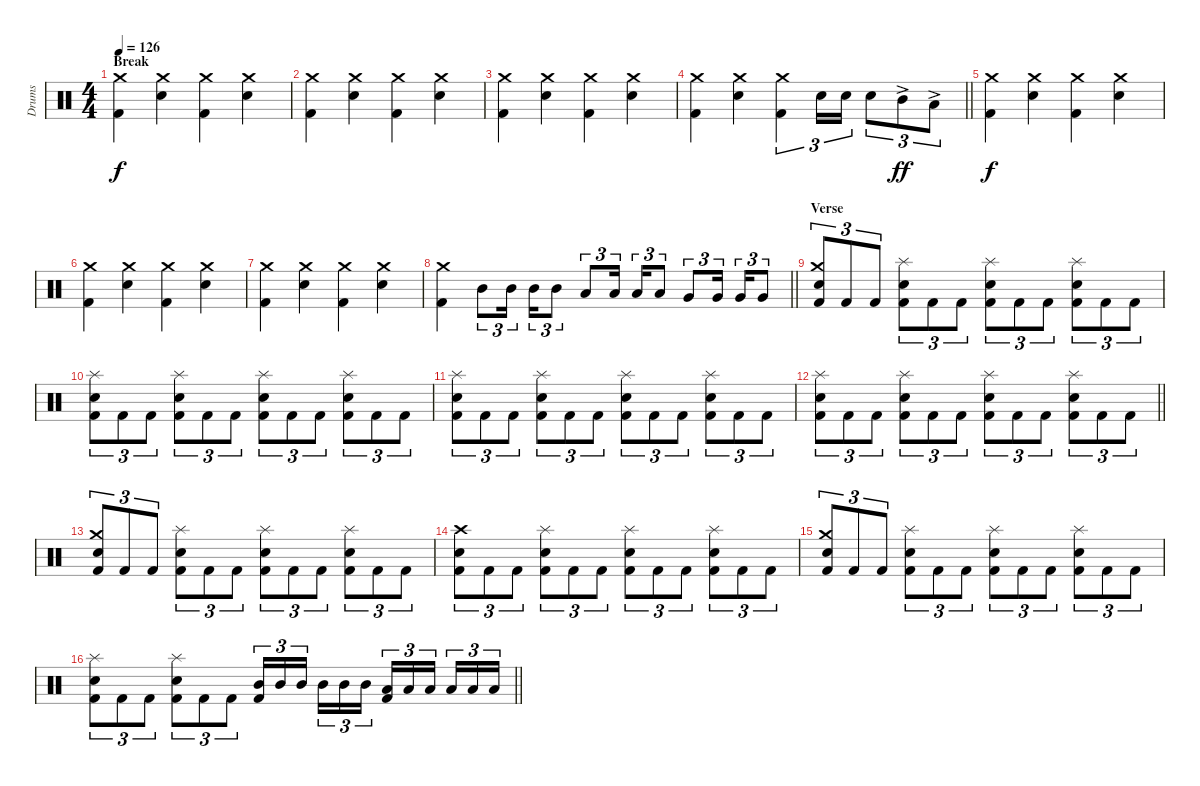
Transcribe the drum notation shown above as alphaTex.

\track ("Drums" "Drums") {instrument percussion}
\staff {score}
\articulation defaults
\ts (4 4)
\section ("" "Break")
\tempo 126
\clef neutral
\ks c
("Kick (hit) 2" "Crash medium (hit)").4{dy f} ("Snare (hit) 2" "Crash medium (hit)").4 ("Kick (hit) 2" "Crash medium (hit)").4 ("Snare (hit) 2" "Crash medium (hit)").4 |
("Kick (hit) 2" "Crash medium (hit)").4 ("Snare (hit) 2" "Crash medium (hit)").4 ("Kick (hit) 2" "Crash medium (hit)").4 ("Snare (hit) 2" "Crash medium (hit)").4 |
("Kick (hit) 2" "Crash medium (hit)").4 ("Snare (hit) 2" "Crash medium (hit)").4 ("Kick (hit) 2" "Crash medium (hit)").4 ("Snare (hit) 2" "Crash medium (hit)").4 |
\barLineRight lightlight
("Kick (hit) 2" "Crash medium (hit)").4 ("Snare (hit) 2" "Crash medium (hit)").4 ("Kick (hit) 2" "Crash medium (hit)").4{tu (3 2)} "Snare (hit) 2".16{tu (3 2)} "Snare (hit) 2".16{tu (3 2)} "Snare (hit) 2".8{tu (3 2)} "Mid Tom (hit)"{ac}.8{tu (3 2) dy ff} "Low Tom (hit)"{ac}.8{tu (3 2)} |
\section ("" "")
("Kick (hit) 2" "Crash medium (hit)").4{dy f} ("Snare (hit) 2" "Crash medium (hit)").4 ("Kick (hit) 2" "Crash medium (hit)").4 ("Snare (hit) 2" "Crash medium (hit)").4 |
("Kick (hit) 2" "Crash medium (hit)").4 ("Snare (hit) 2" "Crash medium (hit)").4 ("Kick (hit) 2" "Crash medium (hit)").4 ("Snare (hit) 2" "Crash medium (hit)").4 |
("Kick (hit) 2" "Crash medium (hit)").4 ("Snare (hit) 2" "Crash medium (hit)").4 ("Kick (hit) 2" "Crash medium (hit)").4 ("Snare (hit) 2" "Crash medium (hit)").4 |
\barLineRight lightlight
("Kick (hit) 2" "Crash medium (hit)").4 "Mid Tom (hit)".8{tu (3 2)} "Mid Tom (hit)".16{tu (3 2) beam splitsecondary} "Mid Tom (hit)".16{tu (3 2)} "Mid Tom (hit)".8{tu (3 2)} "Low Tom (hit)".8{tu (3 2)} "Low Tom (hit)".16{tu (3 2) beam splitsecondary} "Low Tom (hit)".16{tu (3 2)} "Low Tom (hit)".8{tu (3 2)} "Very Low Tom (hit)".8{tu (3 2)} "Very Low Tom (hit)".16{tu (3 2) beam splitsecondary} "Very Low Tom (hit)".16{tu (3 2)} "Very Low Tom (hit)".8{tu (3 2)} |
\section ("" "Verse")
("Kick (hit) 2" "Snare (hit) 2" "Crash medium (hit)").8{tu (3 2)} "Kick (hit) 2".8{tu (3 2)} "Kick (hit) 2".8{tu (3 2)} ("Kick (hit) 2" "Snare (hit) 2" "Splash (hit)").8{tu (3 2)} "Kick (hit) 2".8{tu (3 2)} "Kick (hit) 2".8{tu (3 2)} ("Kick (hit) 2" "Snare (hit) 2" "Splash (hit)").8{tu (3 2)} "Kick (hit) 2".8{tu (3 2)} "Kick (hit) 2".8{tu (3 2)} ("Kick (hit) 2" "Snare (hit) 2" "Splash (hit)").8{tu (3 2)} "Kick (hit) 2".8{tu (3 2)} "Kick (hit) 2".8{tu (3 2)} |
("Kick (hit) 2" "Snare (hit) 2" "Splash (hit)").8{tu (3 2)} "Kick (hit) 2".8{tu (3 2)} "Kick (hit) 2".8{tu (3 2)} ("Kick (hit) 2" "Snare (hit) 2" "Splash (hit)").8{tu (3 2)} "Kick (hit) 2".8{tu (3 2)} "Kick (hit) 2".8{tu (3 2)} ("Kick (hit) 2" "Snare (hit) 2" "Splash (hit)").8{tu (3 2)} "Kick (hit) 2".8{tu (3 2)} "Kick (hit) 2".8{tu (3 2)} ("Kick (hit) 2" "Snare (hit) 2" "Splash (hit)").8{tu (3 2)} "Kick (hit) 2".8{tu (3 2)} "Kick (hit) 2".8{tu (3 2)} |
("Kick (hit) 2" "Snare (hit) 2" "Splash (hit)").8{tu (3 2)} "Kick (hit) 2".8{tu (3 2)} "Kick (hit) 2".8{tu (3 2)} ("Kick (hit) 2" "Snare (hit) 2" "Splash (hit)").8{tu (3 2)} "Kick (hit) 2".8{tu (3 2)} "Kick (hit) 2".8{tu (3 2)} ("Kick (hit) 2" "Snare (hit) 2" "Splash (hit)").8{tu (3 2)} "Kick (hit) 2".8{tu (3 2)} "Kick (hit) 2".8{tu (3 2)} ("Kick (hit) 2" "Snare (hit) 2" "Splash (hit)").8{tu (3 2)} "Kick (hit) 2".8{tu (3 2)} "Kick (hit) 2".8{tu (3 2)} |
\barLineRight lightlight
("Kick (hit) 2" "Snare (hit) 2" "Splash (hit)").8{tu (3 2)} "Kick (hit) 2".8{tu (3 2)} "Kick (hit) 2".8{tu (3 2)} ("Kick (hit) 2" "Snare (hit) 2" "Splash (hit)").8{tu (3 2)} "Kick (hit) 2".8{tu (3 2)} "Kick (hit) 2".8{tu (3 2)} ("Kick (hit) 2" "Snare (hit) 2" "Splash (hit)").8{tu (3 2)} "Kick (hit) 2".8{tu (3 2)} "Kick (hit) 2".8{tu (3 2)} ("Kick (hit) 2" "Snare (hit) 2" "Splash (hit)").8{tu (3 2)} "Kick (hit) 2".8{tu (3 2)} "Kick (hit) 2".8{tu (3 2)} |
\section ("" "")
("Kick (hit) 2" "Snare (hit) 2" "Crash medium (hit)").8{tu (3 2)} "Kick (hit) 2".8{tu (3 2)} "Kick (hit) 2".8{tu (3 2)} ("Kick (hit) 2" "Snare (hit) 2" "Splash (hit)").8{tu (3 2)} "Kick (hit) 2".8{tu (3 2)} "Kick (hit) 2".8{tu (3 2)} ("Kick (hit) 2" "Snare (hit) 2" "Splash (hit)").8{tu (3 2)} "Kick (hit) 2".8{tu (3 2)} "Kick (hit) 2".8{tu (3 2)} ("Kick (hit) 2" "Snare (hit) 2" "Splash (hit)").8{tu (3 2)} "Kick (hit) 2".8{tu (3 2)} "Kick (hit) 2".8{tu (3 2)} |
("Kick (hit) 2" "Snare (hit) 2" "Crash high (hit)").8{tu (3 2)} "Kick (hit) 2".8{tu (3 2)} "Kick (hit) 2".8{tu (3 2)} ("Kick (hit) 2" "Snare (hit) 2" "Splash (hit)").8{tu (3 2)} "Kick (hit) 2".8{tu (3 2)} "Kick (hit) 2".8{tu (3 2)} ("Kick (hit) 2" "Snare (hit) 2" "Splash (hit)").8{tu (3 2)} "Kick (hit) 2".8{tu (3 2)} "Kick (hit) 2".8{tu (3 2)} ("Kick (hit) 2" "Snare (hit) 2" "Splash (hit)").8{tu (3 2)} "Kick (hit) 2".8{tu (3 2)} "Kick (hit) 2".8{tu (3 2)} |
("Kick (hit) 2" "Snare (hit) 2" "Crash medium (hit)").8{tu (3 2)} "Kick (hit) 2".8{tu (3 2)} "Kick (hit) 2".8{tu (3 2)} ("Kick (hit) 2" "Snare (hit) 2" "Splash (hit)").8{tu (3 2)} "Kick (hit) 2".8{tu (3 2)} "Kick (hit) 2".8{tu (3 2)} ("Kick (hit) 2" "Snare (hit) 2" "Splash (hit)").8{tu (3 2)} "Kick (hit) 2".8{tu (3 2)} "Kick (hit) 2".8{tu (3 2)} ("Kick (hit) 2" "Snare (hit) 2" "Splash (hit)").8{tu (3 2)} "Kick (hit) 2".8{tu (3 2)} "Kick (hit) 2".8{tu (3 2)} |
\barLineRight lightlight
("Kick (hit) 2" "Snare (hit) 2" "Splash (hit)").8{tu (3 2)} "Kick (hit) 2".8{tu (3 2)} "Kick (hit) 2".8{tu (3 2)} ("Kick (hit) 2" "Snare (hit) 2" "Splash (hit)").8{tu (3 2)} "Kick (hit) 2".8{tu (3 2)} "Kick (hit) 2".8{tu (3 2)} ("Kick (hit) 2" "Mid Tom (hit)").16{tu (3 2)} "Mid Tom (hit)".16{tu (3 2)} "Mid Tom (hit)".16{tu (3 2) beam splitsecondary} "Mid Tom (hit)".16{tu (3 2)} "Mid Tom (hit)".16{tu (3 2)} "Mid Tom (hit)".16{tu (3 2)} ("Kick (hit) 2" "Low Tom (hit)").16{tu (3 2)} "Low Tom (hit)".16{tu (3 2)} "Low Tom (hit)".16{tu (3 2) beam splitsecondary} "Low Tom (hit)".16{tu (3 2)} "Low Tom (hit)".16{tu (3 2)} "Low Tom (hit)".16{tu (3 2)}
